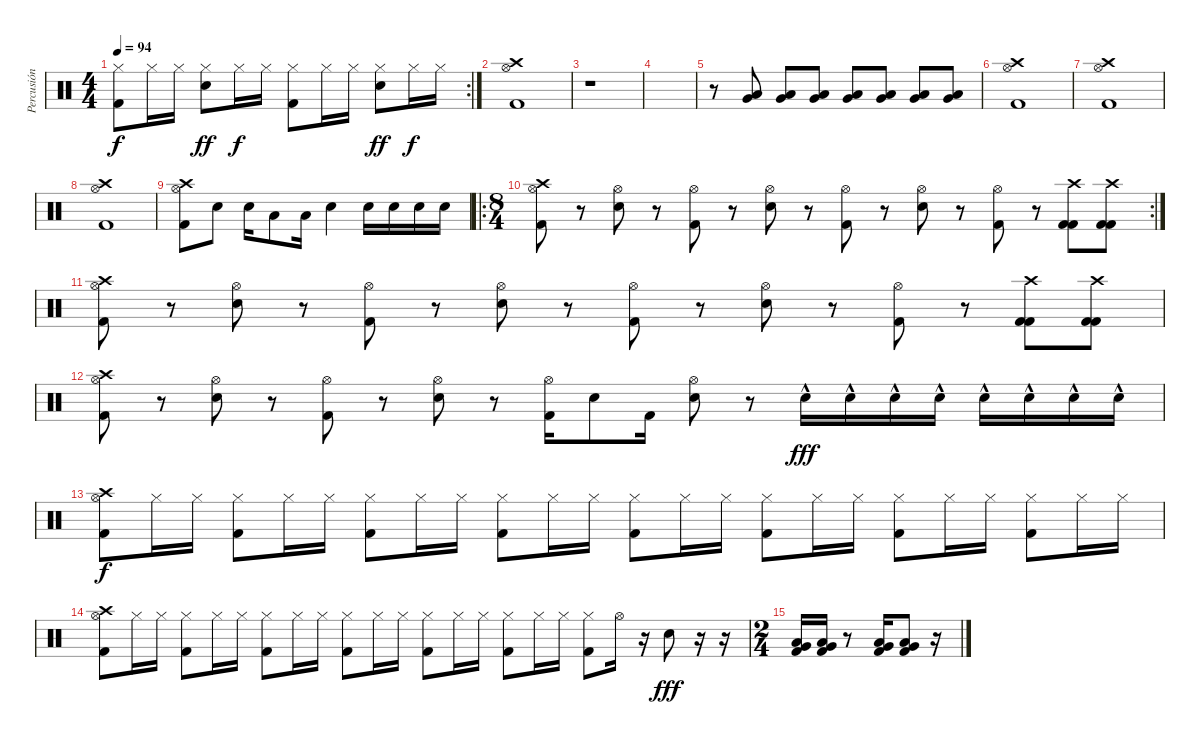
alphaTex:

\track ("Percusión" "Percusión") {instrument percussion}
\staff {score}
\articulation defaults
\rc 2
\ts (4 4)
\tempo 94
\clef neutral
\ks c
("Hi-Hat (closed)" "Kick (hit) 2").8{dy f} "Hi-Hat (closed)".16 "Hi-Hat (closed)".16 ("Hi-Hat (closed)" "Electric Snare (hit)").8{dy ff} "Hi-Hat (closed)".16{dy f} "Hi-Hat (closed)".16 ("Hi-Hat (closed)" "Kick (hit) 2").8 "Hi-Hat (closed)".16 "Hi-Hat (closed)".16 ("Hi-Hat (closed)" "Electric Snare (hit)").8{dy ff} "Hi-Hat (closed)".16{dy f} "Hi-Hat (closed)".16 |
("Crash high (hit)" "Hi-Hat (open)" "Kick (hit) 2").1 |
r.1 |
|
r.8 ("Low Floor Tom (hit)" "Very Low Tom (hit)").8 ("Low Floor Tom (hit)" "Very Low Tom (hit)").8 ("Low Floor Tom (hit)" "Very Low Tom (hit)").8 ("Low Floor Tom (hit)" "Very Low Tom (hit)").8 ("Low Floor Tom (hit)" "Very Low Tom (hit)").8 ("Low Floor Tom (hit)" "Very Low Tom (hit)").8 ("Low Floor Tom (hit)" "Very Low Tom (hit)").8 |
("Crash high (hit)" "Hi-Hat (open)" "Kick (hit) 2").1 |
("Crash high (hit)" "Hi-Hat (open)" "Kick (hit) 2").1 |
("Crash high (hit)" "Hi-Hat (open)" "Kick (hit) 2").1 |
("Crash high (hit)" "Hi-Hat (open)" "Kick (hit) 2").8 "Electric Snare (hit)".8 "Electric Snare (hit)".16 "Low Tom (hit)".8 "Low Tom (hit)".16 "Electric Snare (hit)".4 "Electric Snare (hit)".16 "Electric Snare (hit)".16 "Electric Snare (hit)".16 "Electric Snare (hit)".16 |
\ro
\rc 2
\ts (8 4)
("Crash high (hit)" "Hi-Hat (open)" "Kick (hit) 2").8 r.8 ("Hi-Hat (open)" "Electric Snare (hit)").8 r.8 ("Hi-Hat (open)" "Kick (hit) 2").8 r.8 ("Hi-Hat (open)" "Electric Snare (hit)").8 r.8 ("Hi-Hat (open)" "Kick (hit) 2").8 r.8 ("Hi-Hat (open)" "Electric Snare (hit)").8 r.8 ("Hi-Hat (open)" "Kick (hit) 2").8 r.8 ("Crash high (hit)" "Kick (hit) 2" "Kick (hit) 2").8 ("Crash high (hit)" "Kick (hit) 2" "Kick (hit) 2").8 |
("Crash high (hit)" "Hi-Hat (open)" "Kick (hit) 2").8 r.8 ("Hi-Hat (open)" "Electric Snare (hit)").8 r.8 ("Hi-Hat (open)" "Kick (hit) 2").8 r.8 ("Hi-Hat (open)" "Electric Snare (hit)").8 r.8 ("Hi-Hat (open)" "Kick (hit) 2").8 r.8 ("Hi-Hat (open)" "Electric Snare (hit)").8 r.8 ("Hi-Hat (open)" "Kick (hit) 2").8 r.8 ("Crash high (hit)" "Kick (hit) 2" "Kick (hit) 2").8 ("Crash high (hit)" "Kick (hit) 2" "Kick (hit) 2").8 |
("Crash high (hit)" "Hi-Hat (open)" "Kick (hit) 2").8 r.8 ("Hi-Hat (open)" "Electric Snare (hit)").8 r.8 ("Hi-Hat (open)" "Kick (hit) 2").8 r.8 ("Hi-Hat (open)" "Electric Snare (hit)").8 r.8 ("Hi-Hat (open)" "Kick (hit) 2").16 "Electric Snare (hit)".8 "Kick (hit) 2".16 ("Hi-Hat (open)" "Electric Snare (hit)").8 r.8 "Electric Snare (hit)"{hac}.16{dy fff} "Electric Snare (hit)"{hac}.16 "Electric Snare (hit)"{hac}.16 "Electric Snare (hit)"{hac}.16 "Electric Snare (hit)"{hac}.16 "Electric Snare (hit)"{hac}.16 "Electric Snare (hit)"{hac}.16 "Electric Snare (hit)"{hac}.16 |
("Crash high (hit)" "Hi-Hat (open)" "Kick (hit) 2").8{dy f} "Hi-Hat (closed)".16 "Hi-Hat (closed)".16 ("Hi-Hat (closed)" "Kick (hit) 2").8 "Hi-Hat (closed)".16 "Hi-Hat (closed)".16 ("Hi-Hat (closed)" "Kick (hit) 2").8 "Hi-Hat (closed)".16 "Hi-Hat (closed)".16 ("Hi-Hat (closed)" "Kick (hit) 2").8 "Hi-Hat (closed)".16 "Hi-Hat (closed)".16 ("Hi-Hat (closed)" "Kick (hit) 2").8 "Hi-Hat (closed)".16 "Hi-Hat (closed)".16 ("Hi-Hat (closed)" "Kick (hit) 2").8 "Hi-Hat (closed)".16 "Hi-Hat (closed)".16 ("Hi-Hat (closed)" "Kick (hit) 2").8 "Hi-Hat (closed)".16 "Hi-Hat (closed)".16 ("Hi-Hat (closed)" "Kick (hit) 2").8 "Hi-Hat (closed)".16 "Hi-Hat (closed)".16 |
("Crash high (hit)" "Hi-Hat (open)" "Kick (hit) 2").8 "Hi-Hat (closed)".16 "Hi-Hat (closed)".16 ("Hi-Hat (closed)" "Kick (hit) 2").8 "Hi-Hat (closed)".16 "Hi-Hat (closed)".16 ("Hi-Hat (closed)" "Kick (hit) 2").8 "Hi-Hat (closed)".16 "Hi-Hat (closed)".16 ("Hi-Hat (closed)" "Kick (hit) 2").8 "Hi-Hat (closed)".16 "Hi-Hat (closed)".16 ("Hi-Hat (closed)" "Kick (hit) 2").8 "Hi-Hat (closed)".16 "Hi-Hat (closed)".16 ("Hi-Hat (closed)" "Kick (hit) 2").8 "Hi-Hat (closed)".16 "Hi-Hat (closed)".16 ("Hi-Hat (closed)" "Kick (hit) 2").8 "Hi-Hat (open)".16 r.16 "Electric Snare (hit)".8{dy fff} r.16 r.16 |
\ts (2 4)
("Low Floor Tom (hit)" "Very Low Tom (hit)" "Kick (hit) 2").16 ("Low Floor Tom (hit)" "Very Low Tom (hit)" "Kick (hit) 2").16 r.8 ("Low Floor Tom (hit)" "Very Low Tom (hit)" "Kick (hit) 2").16 ("Low Floor Tom (hit)" "Very Low Tom (hit)" "Kick (hit) 2").8 r.16
